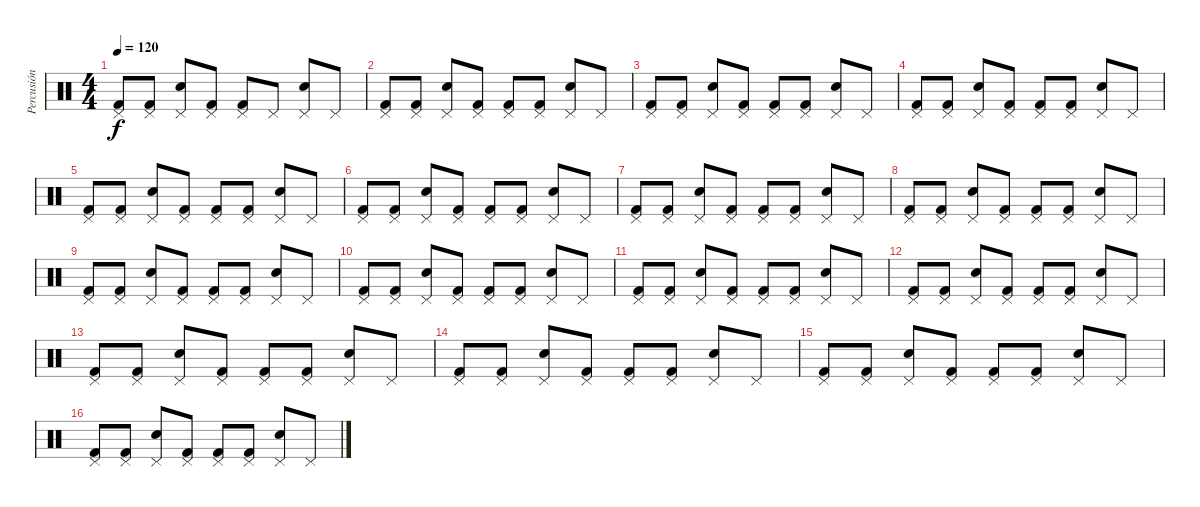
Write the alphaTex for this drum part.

\track ("Percusión" "Percusión") {instrument percussion}
\staff {score}
\articulation defaults
\ts (4 4)
\tempo 120
\clef neutral
\ks c
("Pedal Hi-Hat (hit)" "Kick (hit) 2").8{dy f} ("Pedal Hi-Hat (hit)" "Kick (hit) 2").8 ("Pedal Hi-Hat (hit)" "Electric Snare (hit)").8 ("Pedal Hi-Hat (hit)" "Kick (hit) 2").8 ("Pedal Hi-Hat (hit)" "Kick (hit) 2").8 "Pedal Hi-Hat (hit)".8 ("Pedal Hi-Hat (hit)" "Snare (hit) 2").8 "Pedal Hi-Hat (hit)".8 |
("Pedal Hi-Hat (hit)" "Kick (hit) 2").8 ("Pedal Hi-Hat (hit)" "Kick (hit) 2").8 ("Pedal Hi-Hat (hit)" "Electric Snare (hit)").8 ("Pedal Hi-Hat (hit)" "Kick (hit) 2").8 ("Pedal Hi-Hat (hit)" "Kick (hit) 2").8 ("Pedal Hi-Hat (hit)" "Kick (hit) 2").8 ("Pedal Hi-Hat (hit)" "Electric Snare (hit)").8 "Pedal Hi-Hat (hit)".8 |
("Pedal Hi-Hat (hit)" "Kick (hit) 2").8 ("Pedal Hi-Hat (hit)" "Kick (hit) 2").8 ("Pedal Hi-Hat (hit)" "Electric Snare (hit)").8 ("Pedal Hi-Hat (hit)" "Kick (hit) 2").8 ("Pedal Hi-Hat (hit)" "Kick (hit) 2").8 ("Pedal Hi-Hat (hit)" "Kick (hit) 2").8 ("Pedal Hi-Hat (hit)" "Electric Snare (hit)").8 "Pedal Hi-Hat (hit)".8 |
("Pedal Hi-Hat (hit)" "Kick (hit) 2").8 ("Pedal Hi-Hat (hit)" "Kick (hit) 2").8 ("Pedal Hi-Hat (hit)" "Electric Snare (hit)").8 ("Pedal Hi-Hat (hit)" "Kick (hit) 2").8 ("Pedal Hi-Hat (hit)" "Kick (hit) 2").8 ("Pedal Hi-Hat (hit)" "Kick (hit) 2").8 ("Pedal Hi-Hat (hit)" "Electric Snare (hit)").8 "Pedal Hi-Hat (hit)".8 |
("Pedal Hi-Hat (hit)" "Kick (hit) 2").8 ("Pedal Hi-Hat (hit)" "Kick (hit) 2").8 ("Pedal Hi-Hat (hit)" "Electric Snare (hit)").8 ("Pedal Hi-Hat (hit)" "Kick (hit) 2").8 ("Pedal Hi-Hat (hit)" "Kick (hit) 2").8 ("Pedal Hi-Hat (hit)" "Kick (hit) 2").8 ("Pedal Hi-Hat (hit)" "Electric Snare (hit)").8 "Pedal Hi-Hat (hit)".8 |
("Pedal Hi-Hat (hit)" "Kick (hit) 2").8 ("Pedal Hi-Hat (hit)" "Kick (hit) 2").8 ("Pedal Hi-Hat (hit)" "Electric Snare (hit)").8 ("Pedal Hi-Hat (hit)" "Kick (hit) 2").8 ("Pedal Hi-Hat (hit)" "Kick (hit) 2").8 ("Pedal Hi-Hat (hit)" "Kick (hit) 2").8 ("Pedal Hi-Hat (hit)" "Electric Snare (hit)").8 "Pedal Hi-Hat (hit)".8 |
("Pedal Hi-Hat (hit)" "Kick (hit) 2").8 ("Pedal Hi-Hat (hit)" "Kick (hit) 2").8 ("Pedal Hi-Hat (hit)" "Electric Snare (hit)").8 ("Pedal Hi-Hat (hit)" "Kick (hit) 2").8 ("Pedal Hi-Hat (hit)" "Kick (hit) 2").8 ("Pedal Hi-Hat (hit)" "Kick (hit) 2").8 ("Pedal Hi-Hat (hit)" "Electric Snare (hit)").8 "Pedal Hi-Hat (hit)".8 |
("Pedal Hi-Hat (hit)" "Kick (hit) 2").8 ("Pedal Hi-Hat (hit)" "Kick (hit) 2").8 ("Pedal Hi-Hat (hit)" "Electric Snare (hit)").8 ("Pedal Hi-Hat (hit)" "Kick (hit) 2").8 ("Pedal Hi-Hat (hit)" "Kick (hit) 2").8 ("Pedal Hi-Hat (hit)" "Kick (hit) 2").8 ("Pedal Hi-Hat (hit)" "Electric Snare (hit)").8 "Pedal Hi-Hat (hit)".8 |
("Pedal Hi-Hat (hit)" "Kick (hit) 2").8 ("Pedal Hi-Hat (hit)" "Kick (hit) 2").8 ("Pedal Hi-Hat (hit)" "Electric Snare (hit)").8 ("Pedal Hi-Hat (hit)" "Kick (hit) 2").8 ("Pedal Hi-Hat (hit)" "Kick (hit) 2").8 ("Pedal Hi-Hat (hit)" "Kick (hit) 2").8 ("Pedal Hi-Hat (hit)" "Electric Snare (hit)").8 "Pedal Hi-Hat (hit)".8 |
("Pedal Hi-Hat (hit)" "Kick (hit) 2").8 ("Pedal Hi-Hat (hit)" "Kick (hit) 2").8 ("Pedal Hi-Hat (hit)" "Electric Snare (hit)").8 ("Pedal Hi-Hat (hit)" "Kick (hit) 2").8 ("Pedal Hi-Hat (hit)" "Kick (hit) 2").8 ("Pedal Hi-Hat (hit)" "Kick (hit) 2").8 ("Pedal Hi-Hat (hit)" "Electric Snare (hit)").8 "Pedal Hi-Hat (hit)".8 |
("Pedal Hi-Hat (hit)" "Kick (hit) 2").8 ("Pedal Hi-Hat (hit)" "Kick (hit) 2").8 ("Pedal Hi-Hat (hit)" "Electric Snare (hit)").8 ("Pedal Hi-Hat (hit)" "Kick (hit) 2").8 ("Pedal Hi-Hat (hit)" "Kick (hit) 2").8 ("Pedal Hi-Hat (hit)" "Kick (hit) 2").8 ("Pedal Hi-Hat (hit)" "Electric Snare (hit)").8 "Pedal Hi-Hat (hit)".8 |
("Pedal Hi-Hat (hit)" "Kick (hit) 2").8 ("Pedal Hi-Hat (hit)" "Kick (hit) 2").8 ("Pedal Hi-Hat (hit)" "Electric Snare (hit)").8 ("Pedal Hi-Hat (hit)" "Kick (hit) 2").8 ("Pedal Hi-Hat (hit)" "Kick (hit) 2").8 ("Pedal Hi-Hat (hit)" "Kick (hit) 2").8 ("Pedal Hi-Hat (hit)" "Electric Snare (hit)").8 "Pedal Hi-Hat (hit)".8 |
("Pedal Hi-Hat (hit)" "Kick (hit) 2").8 ("Pedal Hi-Hat (hit)" "Kick (hit) 2").8 ("Pedal Hi-Hat (hit)" "Electric Snare (hit)").8 ("Pedal Hi-Hat (hit)" "Kick (hit) 2").8 ("Pedal Hi-Hat (hit)" "Kick (hit) 2").8 ("Pedal Hi-Hat (hit)" "Kick (hit) 2").8 ("Pedal Hi-Hat (hit)" "Electric Snare (hit)").8 "Pedal Hi-Hat (hit)".8 |
("Pedal Hi-Hat (hit)" "Kick (hit) 2").8 ("Pedal Hi-Hat (hit)" "Kick (hit) 2").8 ("Pedal Hi-Hat (hit)" "Electric Snare (hit)").8 ("Pedal Hi-Hat (hit)" "Kick (hit) 2").8 ("Pedal Hi-Hat (hit)" "Kick (hit) 2").8 ("Pedal Hi-Hat (hit)" "Kick (hit) 2").8 ("Pedal Hi-Hat (hit)" "Electric Snare (hit)").8 "Pedal Hi-Hat (hit)".8 |
("Pedal Hi-Hat (hit)" "Kick (hit) 2").8 ("Pedal Hi-Hat (hit)" "Kick (hit) 2").8 ("Pedal Hi-Hat (hit)" "Electric Snare (hit)").8 ("Pedal Hi-Hat (hit)" "Kick (hit) 2").8 ("Pedal Hi-Hat (hit)" "Kick (hit) 2").8 ("Pedal Hi-Hat (hit)" "Kick (hit) 2").8 ("Pedal Hi-Hat (hit)" "Electric Snare (hit)").8 "Pedal Hi-Hat (hit)".8 |
("Pedal Hi-Hat (hit)" "Kick (hit) 2").8 ("Pedal Hi-Hat (hit)" "Kick (hit) 2").8 ("Pedal Hi-Hat (hit)" "Electric Snare (hit)").8 ("Pedal Hi-Hat (hit)" "Kick (hit) 2").8 ("Pedal Hi-Hat (hit)" "Kick (hit) 2").8 ("Pedal Hi-Hat (hit)" "Kick (hit) 2").8 ("Pedal Hi-Hat (hit)" "Electric Snare (hit)").8 "Pedal Hi-Hat (hit)".8
